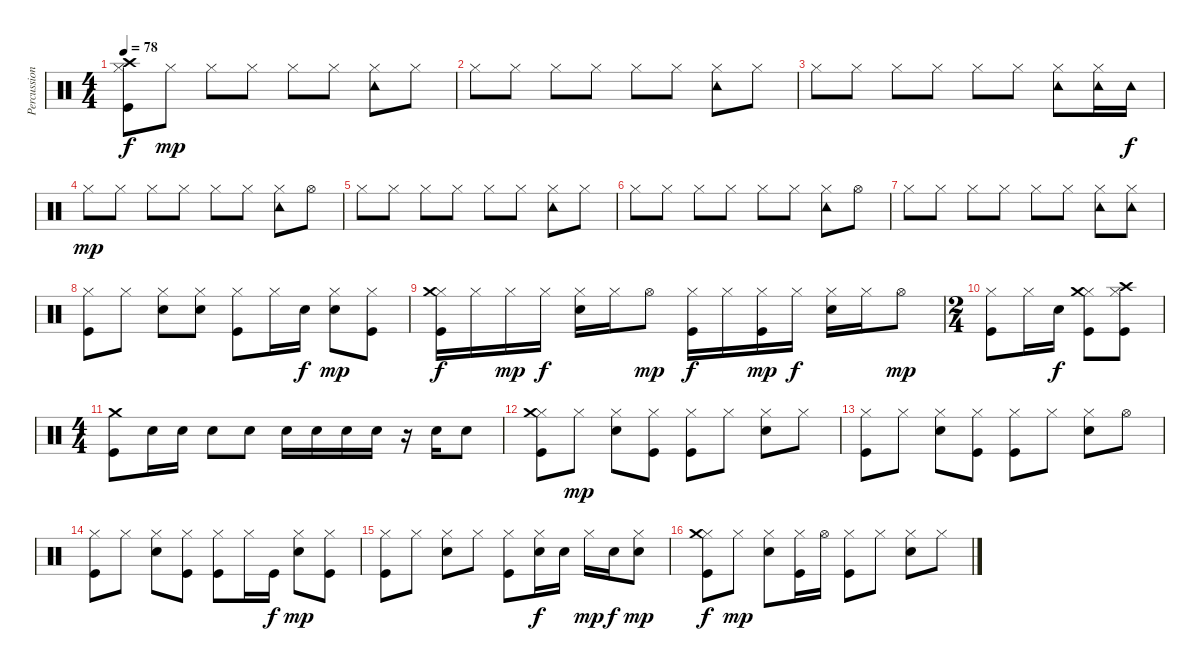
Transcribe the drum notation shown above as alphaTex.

\track ("Percussion" "Percussion") {instrument percussion}
\staff {score}
\articulation defaults
\ts (4 4)
\tempo 78
\clef neutral
\ks c
("Kick (hit)" "Hi-Hat (closed)" "Crash high (hit)").8{dy f} "Hi-Hat (closed)".8{dy mp} "Hi-Hat (closed)".8 "Hi-Hat (closed)".8 "Hi-Hat (closed)".8 "Hi-Hat (closed)".8 ("Tambourine (hit)" "Hi-Hat (closed)").8 "Hi-Hat (closed)".8 |
"Hi-Hat (closed)".8 "Hi-Hat (closed)".8 "Hi-Hat (closed)".8 "Hi-Hat (closed)".8 "Hi-Hat (closed)".8 "Hi-Hat (closed)".8 ("Tambourine (hit)" "Hi-Hat (closed)").8 "Hi-Hat (closed)".8 |
"Hi-Hat (closed)".8 "Hi-Hat (closed)".8 "Hi-Hat (closed)".8 "Hi-Hat (closed)".8 "Hi-Hat (closed)".8 "Hi-Hat (closed)".8 ("Tambourine (hit)" "Hi-Hat (closed)").8 ("Tambourine (hit)" "Hi-Hat (closed)").16 "Tambourine (hit)".16{dy f} |
"Hi-Hat (closed)".8{dy mp} "Hi-Hat (closed)".8 "Hi-Hat (closed)".8 "Hi-Hat (closed)".8 "Hi-Hat (closed)".8 "Hi-Hat (closed)".8 ("Tambourine (hit)" "Hi-Hat (closed)").8 "Hi-Hat (open)".8 |
"Hi-Hat (closed)".8 "Hi-Hat (closed)".8 "Hi-Hat (closed)".8 "Hi-Hat (closed)".8 "Hi-Hat (closed)".8 "Hi-Hat (closed)".8 ("Tambourine (hit)" "Hi-Hat (closed)").8 "Hi-Hat (closed)".8 |
"Hi-Hat (closed)".8 "Hi-Hat (closed)".8 "Hi-Hat (closed)".8 "Hi-Hat (closed)".8 "Hi-Hat (closed)".8 "Hi-Hat (closed)".8 ("Tambourine (hit)" "Hi-Hat (closed)").8 "Hi-Hat (open)".8 |
"Hi-Hat (closed)".8 "Hi-Hat (closed)".8 "Hi-Hat (closed)".8 "Hi-Hat (closed)".8 "Hi-Hat (closed)".8 "Hi-Hat (closed)".8 ("Tambourine (hit)" "Hi-Hat (closed)").8 ("Tambourine (hit)" "Hi-Hat (closed)").8 |
("Kick (hit)" "Hi-Hat (closed)").8 "Hi-Hat (closed)".8 ("Electric Snare (hit)" "Hi-Hat (closed)").8 ("Electric Snare (hit)" "Hi-Hat (closed)").8 ("Kick (hit)" "Hi-Hat (closed)").8 "Hi-Hat (closed)".16 "Electric Snare (hit)".16{dy f} ("Electric Snare (hit)" "Hi-Hat (closed)").8{dy mp} ("Kick (hit)" "Hi-Hat (closed)").8 |
("Kick (hit)" "Hi-Hat (closed)" "Crash medium (hit)").16{dy f} "Hi-Hat (closed)".16 "Hi-Hat (closed)".16{dy mp} "Hi-Hat (closed)".16{dy f} ("Electric Snare (hit)" "Hi-Hat (closed)").16 "Hi-Hat (closed)".16 "Hi-Hat (open)".8{dy mp} ("Kick (hit)" "Hi-Hat (closed)").16{dy f} "Hi-Hat (closed)".16 ("Kick (hit)" "Hi-Hat (closed)").16{dy mp} "Hi-Hat (closed)".16{dy f} ("Electric Snare (hit)" "Hi-Hat (closed)").16 "Hi-Hat (closed)".16 "Hi-Hat (open)".8{dy mp} |
\ts (2 4)
("Kick (hit)" "Hi-Hat (closed)").8 "Hi-Hat (closed)".16 "Electric Snare (hit)".16{dy f} ("Kick (hit)" "Hi-Hat (closed)" "Crash medium (hit)").8 ("Kick (hit)" "Hi-Hat (closed)" "Crash high (hit)").8 |
\ts (4 4)
("Kick (hit)" "Crash medium (hit)").8 "Electric Snare (hit)".16 "Electric Snare (hit)".16 "Electric Snare (hit)".8 "Electric Snare (hit)".8 "Electric Snare (hit)".16 "Electric Snare (hit)".16 "Electric Snare (hit)".16 "Electric Snare (hit)".16 r.16 "Electric Snare (hit)".16 "Electric Snare (hit)".8 |
("Kick (hit)" "Hi-Hat (closed)" "Crash medium (hit)").8 "Hi-Hat (closed)".8{dy mp} ("Electric Snare (hit)" "Hi-Hat (closed)").8 ("Kick (hit)" "Hi-Hat (closed)").8 ("Kick (hit)" "Hi-Hat (closed)").8 "Hi-Hat (closed)".8 ("Electric Snare (hit)" "Hi-Hat (closed)").8 "Hi-Hat (closed)".8 |
("Kick (hit)" "Hi-Hat (closed)").8 "Hi-Hat (closed)".8 ("Electric Snare (hit)" "Hi-Hat (closed)").8 ("Kick (hit)" "Hi-Hat (closed)").8 ("Kick (hit)" "Hi-Hat (closed)").8 "Hi-Hat (closed)".8 ("Electric Snare (hit)" "Hi-Hat (closed)").8 "Hi-Hat (open)".8 |
("Kick (hit)" "Hi-Hat (closed)").8 "Hi-Hat (closed)".8 ("Electric Snare (hit)" "Hi-Hat (closed)").8 ("Kick (hit)" "Hi-Hat (closed)").8 ("Kick (hit)" "Hi-Hat (closed)").8 "Hi-Hat (closed)".16 "Kick (hit)".16{dy f} ("Electric Snare (hit)" "Hi-Hat (closed)").8{dy mp} ("Kick (hit)" "Hi-Hat (closed)").8 |
("Kick (hit)" "Hi-Hat (closed)").8 "Hi-Hat (closed)".8 ("Electric Snare (hit)" "Hi-Hat (closed)").8 "Hi-Hat (closed)".8 ("Kick (hit)" "Hi-Hat (closed)").8 ("Electric Snare (hit)" "Hi-Hat (closed)").16{dy f} "Electric Snare (hit)".16 "Hi-Hat (closed)".16{dy mp} "Electric Snare (hit)".16{dy f} ("Electric Snare (hit)" "Hi-Hat (closed)").8{dy mp} |
("Kick (hit)" "Hi-Hat (closed)" "Crash medium (hit)").8{dy f} "Hi-Hat (closed)".8{dy mp} ("Electric Snare (hit)" "Hi-Hat (closed)").8 ("Kick (hit)" "Hi-Hat (closed)").16 "Hi-Hat (open)".16 ("Kick (hit)" "Hi-Hat (closed)").8 "Hi-Hat (closed)".8 ("Electric Snare (hit)" "Hi-Hat (closed)").8 "Hi-Hat (closed)".8
